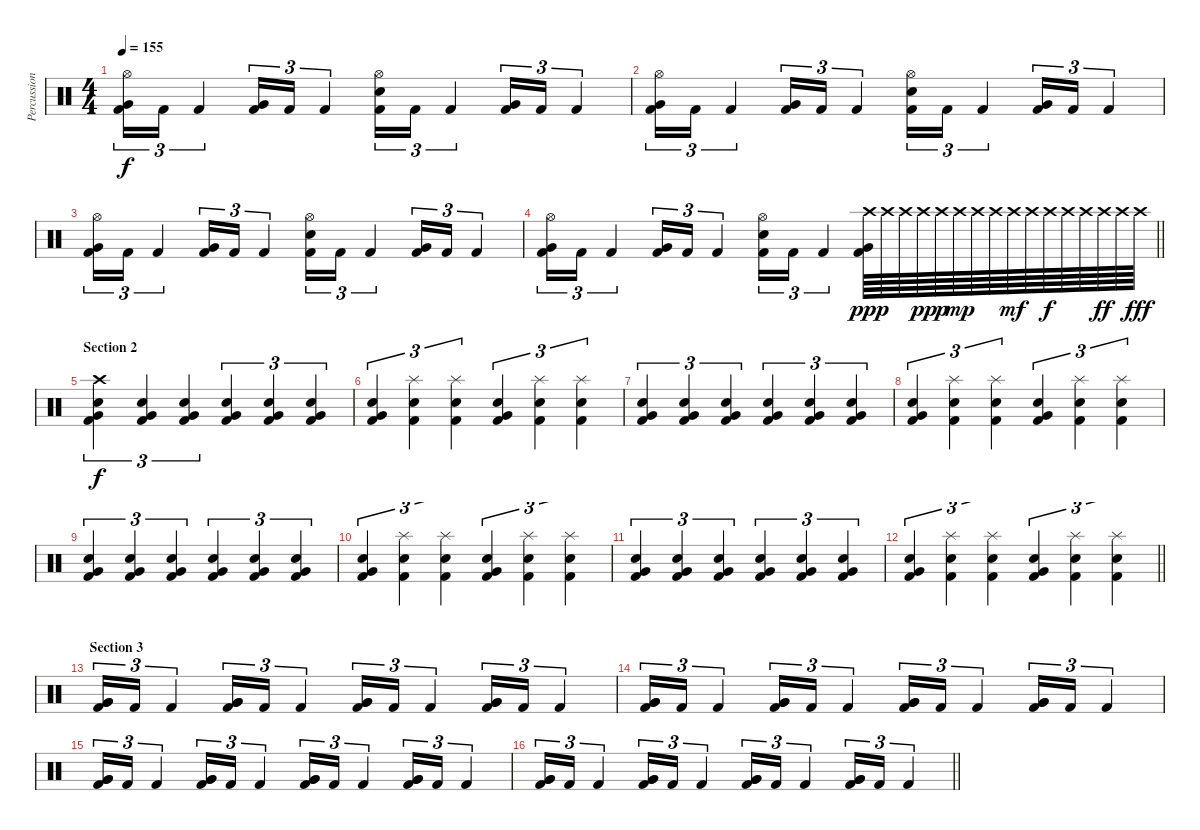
\track ("Percussion" "Percussion") {instrument percussion}
\staff {score}
\articulation defaults
\ts (4 4)
\tempo 155
\clef neutral
\ks c
("Hi-Hat (open)" "Very Low Tom (hit)" "Kick (hit) 2").16{tu (3 2) dy f} "Kick (hit) 2".16{tu (3 2)} "Kick (hit) 2".4{tu (3 2)} ("Very Low Tom (hit)" "Kick (hit) 2").16{tu (3 2)} "Kick (hit) 2".16{tu (3 2)} "Kick (hit) 2".4{tu (3 2)} ("Hi-Hat (open)" "Electric Snare (hit)" "Kick (hit) 2").16{tu (3 2)} "Kick (hit) 2".16{tu (3 2)} "Kick (hit) 2".4{tu (3 2)} ("Very Low Tom (hit)" "Kick (hit) 2").16{tu (3 2)} "Kick (hit) 2".16{tu (3 2)} "Kick (hit) 2".4{tu (3 2)} |
("Hi-Hat (open)" "Very Low Tom (hit)" "Kick (hit) 2").16{tu (3 2)} "Kick (hit) 2".16{tu (3 2)} "Kick (hit) 2".4{tu (3 2)} ("Very Low Tom (hit)" "Kick (hit) 2").16{tu (3 2)} "Kick (hit) 2".16{tu (3 2)} "Kick (hit) 2".4{tu (3 2)} ("Hi-Hat (open)" "Electric Snare (hit)" "Kick (hit) 2").16{tu (3 2)} "Kick (hit) 2".16{tu (3 2)} "Kick (hit) 2".4{tu (3 2)} ("Very Low Tom (hit)" "Kick (hit) 2").16{tu (3 2)} "Kick (hit) 2".16{tu (3 2)} "Kick (hit) 2".4{tu (3 2)} |
("Hi-Hat (open)" "Very Low Tom (hit)" "Kick (hit) 2").16{tu (3 2)} "Kick (hit) 2".16{tu (3 2)} "Kick (hit) 2".4{tu (3 2)} ("Very Low Tom (hit)" "Kick (hit) 2").16{tu (3 2)} "Kick (hit) 2".16{tu (3 2)} "Kick (hit) 2".4{tu (3 2)} ("Hi-Hat (open)" "Electric Snare (hit)" "Kick (hit) 2").16{tu (3 2)} "Kick (hit) 2".16{tu (3 2)} "Kick (hit) 2".4{tu (3 2)} ("Very Low Tom (hit)" "Kick (hit) 2").16{tu (3 2)} "Kick (hit) 2".16{tu (3 2)} "Kick (hit) 2".4{tu (3 2)} |
\barLineRight lightlight
("Hi-Hat (open)" "Very Low Tom (hit)" "Kick (hit) 2").16{tu (3 2)} "Kick (hit) 2".16{tu (3 2)} "Kick (hit) 2".4{tu (3 2)} ("Very Low Tom (hit)" "Kick (hit) 2").16{tu (3 2)} "Kick (hit) 2".16{tu (3 2)} "Kick (hit) 2".4{tu (3 2)} ("Hi-Hat (open)" "Electric Snare (hit)" "Kick (hit) 2").16{tu (3 2)} "Kick (hit) 2".16{tu (3 2)} "Kick (hit) 2".4{tu (3 2)} ("Crash high (hit)" "Very Low Tom (hit)" "Kick (hit) 2").64{dy ppp} "Crash high (hit)".64 "Crash high (hit)".64 "Crash high (hit)".64{dy pp} "Crash high (hit)".64{dy p} "Crash high (hit)".64{dy mp} "Crash high (hit)".64 "Crash high (hit)".64 "Crash high (hit)".64{dy mf} "Crash high (hit)".64 "Crash high (hit)".64{dy f} "Crash high (hit)".64 "Crash high (hit)".64 "Crash high (hit)".64{dy ff} "Crash high (hit)".64 "Crash high (hit)".64{dy fff} |
\section ("" "Section 2")
("Crash high (hit)" "Electric Snare (hit)" "Very Low Tom (hit)" "Kick (hit) 2").4{tu (3 2) dy f} ("Electric Snare (hit)" "Very Low Tom (hit)" "Kick (hit) 2").4{tu (3 2)} ("Electric Snare (hit)" "Very Low Tom (hit)" "Kick (hit) 2").4{tu (3 2)} ("Electric Snare (hit)" "Very Low Tom (hit)" "Kick (hit) 2").4{tu (3 2)} ("Electric Snare (hit)" "Very Low Tom (hit)" "Kick (hit) 2").4{tu (3 2)} ("Electric Snare (hit)" "Very Low Tom (hit)" "Kick (hit) 2").4{tu (3 2)} |
("Electric Snare (hit)" "Very Low Tom (hit)" "Kick (hit) 2").4{tu (3 2)} ("Splash (hit)" "Electric Snare (hit)" "Kick (hit) 2").4{tu (3 2)} ("Splash (hit)" "Electric Snare (hit)" "Kick (hit) 2").4{tu (3 2)} ("Electric Snare (hit)" "Very Low Tom (hit)" "Kick (hit) 2").4{tu (3 2)} ("Splash (hit)" "Electric Snare (hit)" "Kick (hit) 2").4{tu (3 2)} ("Splash (hit)" "Electric Snare (hit)" "Kick (hit) 2").4{tu (3 2)} |
("Electric Snare (hit)" "Very Low Tom (hit)" "Kick (hit) 2").4{tu (3 2)} ("Electric Snare (hit)" "Very Low Tom (hit)" "Kick (hit) 2").4{tu (3 2)} ("Electric Snare (hit)" "Very Low Tom (hit)" "Kick (hit) 2").4{tu (3 2)} ("Electric Snare (hit)" "Very Low Tom (hit)" "Kick (hit) 2").4{tu (3 2)} ("Electric Snare (hit)" "Very Low Tom (hit)" "Kick (hit) 2").4{tu (3 2)} ("Electric Snare (hit)" "Very Low Tom (hit)" "Kick (hit) 2").4{tu (3 2)} |
("Electric Snare (hit)" "Very Low Tom (hit)" "Kick (hit) 2").4{tu (3 2)} ("Splash (hit)" "Electric Snare (hit)" "Kick (hit) 2").4{tu (3 2)} ("Splash (hit)" "Electric Snare (hit)" "Kick (hit) 2").4{tu (3 2)} ("Electric Snare (hit)" "Very Low Tom (hit)" "Kick (hit) 2").4{tu (3 2)} ("Splash (hit)" "Electric Snare (hit)" "Kick (hit) 2").4{tu (3 2)} ("Splash (hit)" "Electric Snare (hit)" "Kick (hit) 2").4{tu (3 2)} |
("Electric Snare (hit)" "Very Low Tom (hit)" "Kick (hit) 2").4{tu (3 2)} ("Electric Snare (hit)" "Very Low Tom (hit)" "Kick (hit) 2").4{tu (3 2)} ("Electric Snare (hit)" "Very Low Tom (hit)" "Kick (hit) 2").4{tu (3 2)} ("Electric Snare (hit)" "Very Low Tom (hit)" "Kick (hit) 2").4{tu (3 2)} ("Electric Snare (hit)" "Very Low Tom (hit)" "Kick (hit) 2").4{tu (3 2)} ("Electric Snare (hit)" "Very Low Tom (hit)" "Kick (hit) 2").4{tu (3 2)} |
("Electric Snare (hit)" "Very Low Tom (hit)" "Kick (hit) 2").4{tu (3 2)} ("Splash (hit)" "Electric Snare (hit)" "Kick (hit) 2").4{tu (3 2)} ("Splash (hit)" "Electric Snare (hit)" "Kick (hit) 2").4{tu (3 2)} ("Electric Snare (hit)" "Very Low Tom (hit)" "Kick (hit) 2").4{tu (3 2)} ("Splash (hit)" "Electric Snare (hit)" "Kick (hit) 2").4{tu (3 2)} ("Splash (hit)" "Electric Snare (hit)" "Kick (hit) 2").4{tu (3 2)} |
("Electric Snare (hit)" "Very Low Tom (hit)" "Kick (hit) 2").4{tu (3 2)} ("Electric Snare (hit)" "Very Low Tom (hit)" "Kick (hit) 2").4{tu (3 2)} ("Electric Snare (hit)" "Very Low Tom (hit)" "Kick (hit) 2").4{tu (3 2)} ("Electric Snare (hit)" "Very Low Tom (hit)" "Kick (hit) 2").4{tu (3 2)} ("Electric Snare (hit)" "Very Low Tom (hit)" "Kick (hit) 2").4{tu (3 2)} ("Electric Snare (hit)" "Very Low Tom (hit)" "Kick (hit) 2").4{tu (3 2)} |
\barLineRight lightlight
("Electric Snare (hit)" "Very Low Tom (hit)" "Kick (hit) 2").4{tu (3 2)} ("Splash (hit)" "Electric Snare (hit)" "Kick (hit) 2").4{tu (3 2)} ("Splash (hit)" "Electric Snare (hit)" "Kick (hit) 2").4{tu (3 2)} ("Electric Snare (hit)" "Very Low Tom (hit)" "Kick (hit) 2").4{tu (3 2)} ("Splash (hit)" "Electric Snare (hit)" "Kick (hit) 2").4{tu (3 2)} ("Splash (hit)" "Electric Snare (hit)" "Kick (hit) 2").4{tu (3 2)} |
\section ("" "Section 3")
("Very Low Tom (hit)" "Very Low Tom (hit)" "Kick (hit) 2").16{tu (3 2) bd 60} "Kick (hit) 2".16{tu (3 2)} "Kick (hit) 2".4{tu (3 2)} ("Very Low Tom (hit)" "Very Low Tom (hit)" "Kick (hit) 2").16{tu (3 2) bd 60} "Kick (hit) 2".16{tu (3 2)} "Kick (hit) 2".4{tu (3 2)} ("Very Low Tom (hit)" "Very Low Tom (hit)" "Kick (hit) 2").16{tu (3 2) bd 60} "Kick (hit) 2".16{tu (3 2)} "Kick (hit) 2".4{tu (3 2)} ("Very Low Tom (hit)" "Very Low Tom (hit)" "Kick (hit) 2").16{tu (3 2) bd 60} "Kick (hit) 2".16{tu (3 2)} "Kick (hit) 2".4{tu (3 2)} |
("Very Low Tom (hit)" "Very Low Tom (hit)" "Kick (hit) 2").16{tu (3 2) bd 60} "Kick (hit) 2".16{tu (3 2)} "Kick (hit) 2".4{tu (3 2)} ("Very Low Tom (hit)" "Very Low Tom (hit)" "Kick (hit) 2").16{tu (3 2) bd 60} "Kick (hit) 2".16{tu (3 2)} "Kick (hit) 2".4{tu (3 2)} ("Very Low Tom (hit)" "Very Low Tom (hit)" "Kick (hit) 2").16{tu (3 2) bd 60} "Kick (hit) 2".16{tu (3 2)} "Kick (hit) 2".4{tu (3 2)} ("Very Low Tom (hit)" "Very Low Tom (hit)" "Kick (hit) 2").16{tu (3 2) bd 60} "Kick (hit) 2".16{tu (3 2)} "Kick (hit) 2".4{tu (3 2)} |
("Very Low Tom (hit)" "Very Low Tom (hit)" "Kick (hit) 2").16{tu (3 2) bd 60} "Kick (hit) 2".16{tu (3 2)} "Kick (hit) 2".4{tu (3 2)} ("Very Low Tom (hit)" "Very Low Tom (hit)" "Kick (hit) 2").16{tu (3 2) bd 60} "Kick (hit) 2".16{tu (3 2)} "Kick (hit) 2".4{tu (3 2)} ("Very Low Tom (hit)" "Very Low Tom (hit)" "Kick (hit) 2").16{tu (3 2) bd 60} "Kick (hit) 2".16{tu (3 2)} "Kick (hit) 2".4{tu (3 2)} ("Very Low Tom (hit)" "Very Low Tom (hit)" "Kick (hit) 2").16{tu (3 2) bd 60} "Kick (hit) 2".16{tu (3 2)} "Kick (hit) 2".4{tu (3 2)} |
\barLineRight lightlight
("Very Low Tom (hit)" "Very Low Tom (hit)" "Kick (hit) 2").16{tu (3 2) bd 60} "Kick (hit) 2".16{tu (3 2)} "Kick (hit) 2".4{tu (3 2)} ("Very Low Tom (hit)" "Very Low Tom (hit)" "Kick (hit) 2").16{tu (3 2) bd 60} "Kick (hit) 2".16{tu (3 2)} "Kick (hit) 2".4{tu (3 2)} ("Very Low Tom (hit)" "Very Low Tom (hit)" "Kick (hit) 2").16{tu (3 2) bd 60} "Kick (hit) 2".16{tu (3 2)} "Kick (hit) 2".4{tu (3 2)} ("Very Low Tom (hit)" "Very Low Tom (hit)" "Kick (hit) 2").16{tu (3 2) bd 60} "Kick (hit) 2".16{tu (3 2)} "Kick (hit) 2".4{tu (3 2)}
